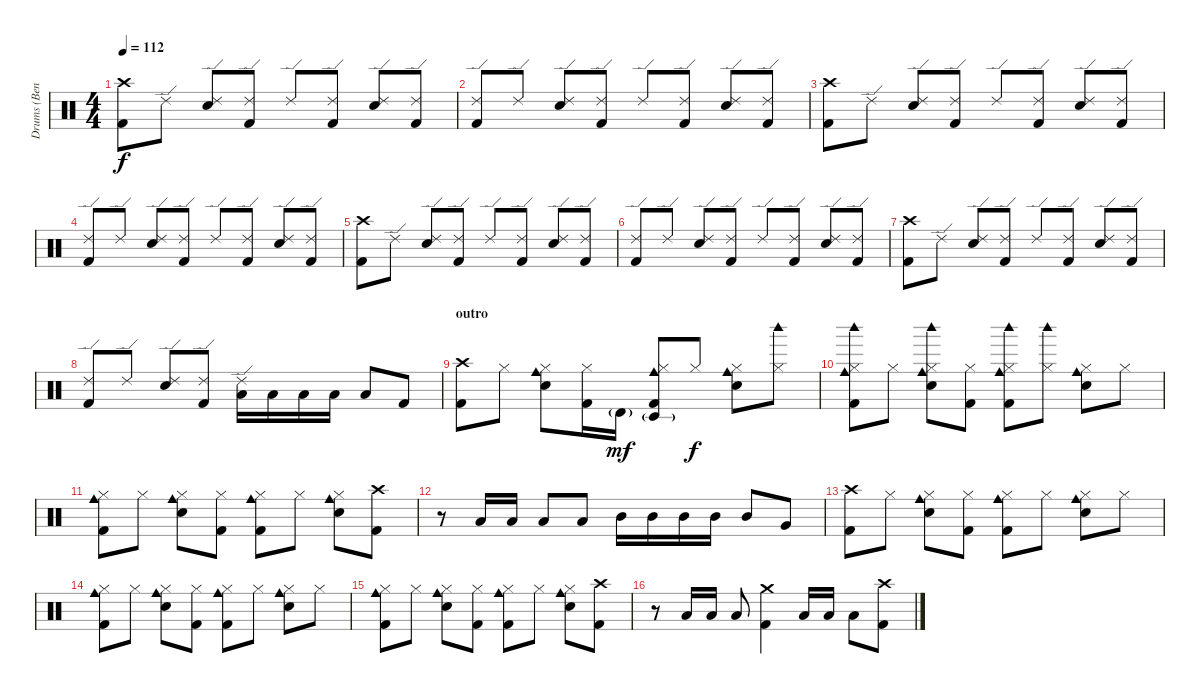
\track ("Drums (Bengerg)" "Drums (Ben") {instrument percussion}
\staff {score}
\articulation defaults
\ts (4 4)
\tempo 112
\clef neutral
\ks c
("Crash high (hit)" "Kick (hit) 2").8{dy f} "Ride (edge) 2".8 ("Ride (edge) 2" "Electric Snare (hit)").8 ("Ride (edge) 2" "Kick (hit) 2").8 "Ride (edge) 2".8 ("Ride (edge) 2" "Kick (hit) 2").8 ("Ride (edge) 2" "Electric Snare (hit)").8 ("Ride (edge) 2" "Kick (hit) 2").8 |
("Ride (edge) 2" "Kick (hit) 2").8 "Ride (edge) 2".8 ("Ride (edge) 2" "Electric Snare (hit)").8 ("Ride (edge) 2" "Kick (hit) 2").8 "Ride (edge) 2".8 ("Ride (edge) 2" "Kick (hit) 2").8 ("Ride (edge) 2" "Electric Snare (hit)").8 ("Ride (edge) 2" "Kick (hit) 2").8 |
("Crash high (hit)" "Kick (hit) 2").8 "Ride (edge) 2".8 ("Ride (edge) 2" "Electric Snare (hit)").8 ("Ride (edge) 2" "Kick (hit) 2").8 "Ride (edge) 2".8 ("Ride (edge) 2" "Kick (hit) 2").8 ("Ride (edge) 2" "Electric Snare (hit)").8 ("Ride (edge) 2" "Kick (hit) 2").8 |
("Ride (edge) 2" "Kick (hit) 2").8 "Ride (edge) 2".8 ("Ride (edge) 2" "Electric Snare (hit)").8 ("Ride (edge) 2" "Kick (hit) 2").8 "Ride (edge) 2".8 ("Ride (edge) 2" "Kick (hit) 2").8 ("Ride (edge) 2" "Electric Snare (hit)").8 ("Ride (edge) 2" "Kick (hit) 2").8 |
("Crash high (hit)" "Kick (hit) 2").8 "Ride (edge) 2".8 ("Ride (edge) 2" "Electric Snare (hit)").8 ("Ride (edge) 2" "Kick (hit) 2").8 "Ride (edge) 2".8 ("Ride (edge) 2" "Kick (hit) 2").8 ("Ride (edge) 2" "Electric Snare (hit)").8 ("Ride (edge) 2" "Kick (hit) 2").8 |
("Ride (edge) 2" "Kick (hit) 2").8 "Ride (edge) 2".8 ("Ride (edge) 2" "Electric Snare (hit)").8 ("Ride (edge) 2" "Kick (hit) 2").8 "Ride (edge) 2".8 ("Ride (edge) 2" "Kick (hit) 2").8 ("Ride (edge) 2" "Electric Snare (hit)").8 ("Ride (edge) 2" "Kick (hit) 2").8 |
("Crash high (hit)" "Kick (hit) 2").8 "Ride (edge) 2".8 ("Ride (edge) 2" "Electric Snare (hit)").8 ("Ride (edge) 2" "Kick (hit) 2").8 "Ride (edge) 2".8 ("Ride (edge) 2" "Kick (hit) 2").8 ("Ride (edge) 2" "Electric Snare (hit)").8 ("Ride (edge) 2" "Kick (hit) 2").8 |
("Ride (edge) 2" "Kick (hit) 2").8 "Ride (edge) 2".8 ("Ride (edge) 2" "Electric Snare (hit)").8 ("Ride (edge) 2" "Kick (hit) 2").8 ("Ride (edge) 2" "Low Tom (hit)").16 "Low Tom (hit)".16 "Low Tom (hit)".16 "Low Tom (hit)".16 "Low Tom (hit)".8 "Kick (hit) 2".8 |
\section ("" "outro")
("Crash high (hit)" "Kick (hit) 2").8 "Hi-Hat (closed)".8 ("Hi-Hat (closed)" "Cowbell medium (hit)" "Electric Snare (hit)").8 ("Hi-Hat (closed)" "Kick (hit) 2").16 "Timbale high (hit)"{g}.16{dy mf} ("Hi-Hat (closed)" "Cowbell medium (hit)" "Kick (hit) 2" "Timbale low (hit)"{g}).8 "Hi-Hat (closed)".8{dy f} ("Hi-Hat (closed)" "Cowbell medium (hit)" "Electric Snare (hit)").8 ("Hi-Hat (closed)" "Woodblock high (hit)").8 |
("Hi-Hat (closed)" "Cowbell medium (hit)" "Kick (hit) 2" "Woodblock high (hit)").8 "Hi-Hat (closed)".8 ("Hi-Hat (closed)" "Cowbell medium (hit)" "Electric Snare (hit)" "Woodblock high (hit)").8 ("Hi-Hat (closed)" "Kick (hit) 2").8 ("Hi-Hat (closed)" "Cowbell medium (hit)" "Kick (hit) 2" "Woodblock high (hit)").8 ("Hi-Hat (closed)" "Woodblock high (hit)").8 ("Hi-Hat (closed)" "Cowbell medium (hit)" "Electric Snare (hit)").8 "Hi-Hat (closed)".8 |
("Hi-Hat (closed)" "Cowbell medium (hit)" "Kick (hit) 2").8 "Hi-Hat (closed)".8 ("Hi-Hat (closed)" "Cowbell medium (hit)" "Electric Snare (hit)").8 ("Hi-Hat (closed)" "Kick (hit) 2").8 ("Hi-Hat (closed)" "Cowbell medium (hit)" "Kick (hit) 2").8 "Hi-Hat (closed)".8 ("Hi-Hat (closed)" "Cowbell medium (hit)" "Electric Snare (hit)").8 ("Crash high (hit)" "Kick (hit) 2").8 |
r.8 "Low Tom (hit)".16 "Low Tom (hit)".16 "Low Tom (hit)".8 "Low Tom (hit)".8 "Mid Tom (hit)".16 "Mid Tom (hit)".16 "Mid Tom (hit)".16 "Mid Tom (hit)".16 "Mid Tom (hit)".8 "Very Low Tom (hit)".8 |
("Crash high (hit)" "Kick (hit) 2").8 "Hi-Hat (closed)".8 ("Hi-Hat (closed)" "Cowbell medium (hit)" "Electric Snare (hit)").8 ("Hi-Hat (closed)" "Kick (hit) 2").8 ("Hi-Hat (closed)" "Cowbell medium (hit)" "Kick (hit) 2").8 "Hi-Hat (closed)".8 ("Hi-Hat (closed)" "Cowbell medium (hit)" "Electric Snare (hit)").8 "Hi-Hat (closed)".8 |
("Hi-Hat (closed)" "Cowbell medium (hit)" "Kick (hit) 2").8 "Hi-Hat (closed)".8 ("Hi-Hat (closed)" "Cowbell medium (hit)" "Electric Snare (hit)").8 ("Hi-Hat (closed)" "Kick (hit) 2").8 ("Hi-Hat (closed)" "Cowbell medium (hit)" "Kick (hit) 2").8 "Hi-Hat (closed)".8 ("Hi-Hat (closed)" "Cowbell medium (hit)" "Electric Snare (hit)").8 "Hi-Hat (closed)".8 |
("Hi-Hat (closed)" "Cowbell medium (hit)" "Kick (hit) 2").8 "Hi-Hat (closed)".8 ("Hi-Hat (closed)" "Cowbell medium (hit)" "Electric Snare (hit)").8 ("Hi-Hat (closed)" "Kick (hit) 2").8 ("Hi-Hat (closed)" "Cowbell medium (hit)" "Kick (hit) 2").8 "Hi-Hat (closed)".8 ("Hi-Hat (closed)" "Cowbell medium (hit)" "Electric Snare (hit)").8 ("Crash high (hit)" "Kick (hit) 2").8 |
r.8 "Low Tom (hit)".16 "Low Tom (hit)".16 "Low Tom (hit)".8 ("Crash medium (hit)" "Kick (hit) 2").4 "Low Tom (hit)".16 "Low Tom (hit)".16 "Low Tom (hit)".8 ("Crash high (hit)" "Kick (hit) 2").8
